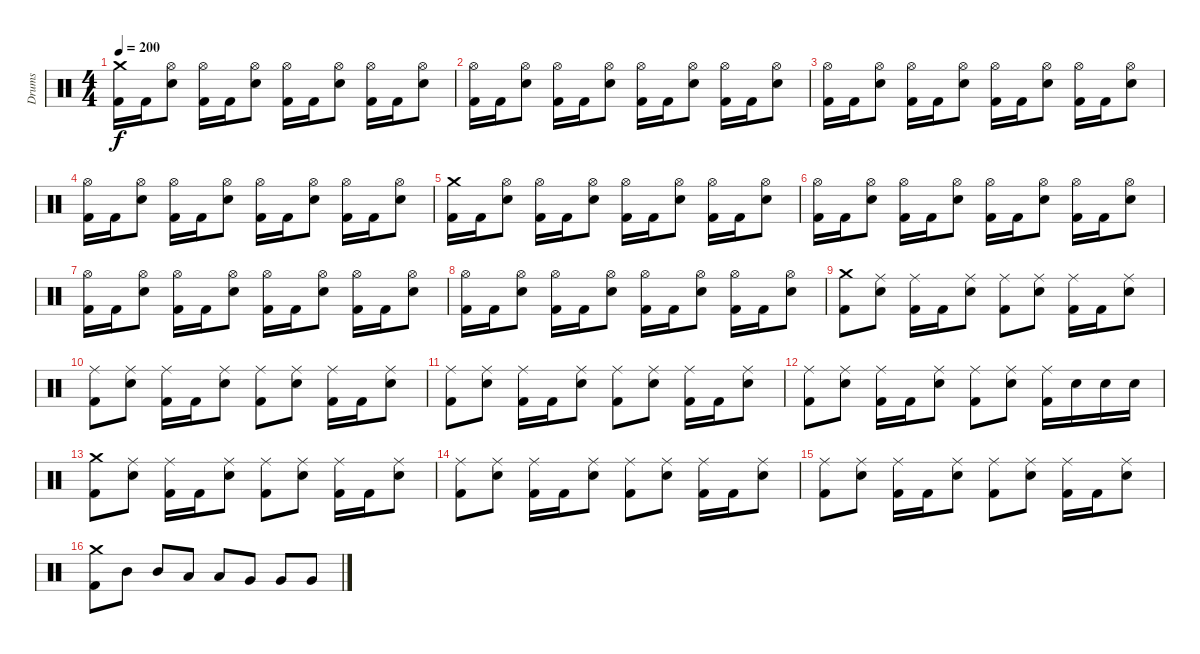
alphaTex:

\track ("Drums" "Drums") {instrument percussion}
\staff {score}
\articulation defaults
\ts (4 4)
\tempo 200
\clef neutral
\ks c
("Crash medium (hit)" "Kick (hit) 2").16{dy f} "Kick (hit) 2".16 ("Hi-Hat (open)" "Electric Snare (hit)").8 ("Hi-Hat (open)" "Kick (hit) 2").16 "Kick (hit) 2".16 ("Hi-Hat (open)" "Electric Snare (hit)").8 ("Hi-Hat (open)" "Kick (hit) 2").16 "Kick (hit) 2".16 ("Hi-Hat (open)" "Electric Snare (hit)").8 ("Hi-Hat (open)" "Kick (hit) 2").16 "Kick (hit) 2".16 ("Hi-Hat (open)" "Electric Snare (hit)").8 |
("Hi-Hat (open)" "Kick (hit) 2").16 "Kick (hit) 2".16 ("Hi-Hat (open)" "Electric Snare (hit)").8 ("Hi-Hat (open)" "Kick (hit) 2").16 "Kick (hit) 2".16 ("Hi-Hat (open)" "Electric Snare (hit)").8 ("Hi-Hat (open)" "Kick (hit) 2").16 "Kick (hit) 2".16 ("Hi-Hat (open)" "Electric Snare (hit)").8 ("Hi-Hat (open)" "Kick (hit) 2").16 "Kick (hit) 2".16 ("Hi-Hat (open)" "Electric Snare (hit)").8 |
("Hi-Hat (open)" "Kick (hit) 2").16 "Kick (hit) 2".16 ("Hi-Hat (open)" "Electric Snare (hit)").8 ("Hi-Hat (open)" "Kick (hit) 2").16 "Kick (hit) 2".16 ("Hi-Hat (open)" "Electric Snare (hit)").8 ("Hi-Hat (open)" "Kick (hit) 2").16 "Kick (hit) 2".16 ("Hi-Hat (open)" "Electric Snare (hit)").8 ("Hi-Hat (open)" "Kick (hit) 2").16 "Kick (hit) 2".16 ("Hi-Hat (open)" "Electric Snare (hit)").8 |
("Hi-Hat (open)" "Kick (hit) 2").16 "Kick (hit) 2".16 ("Hi-Hat (open)" "Electric Snare (hit)").8 ("Hi-Hat (open)" "Kick (hit) 2").16 "Kick (hit) 2".16 ("Hi-Hat (open)" "Electric Snare (hit)").8 ("Hi-Hat (open)" "Kick (hit) 2").16 "Kick (hit) 2".16 ("Hi-Hat (open)" "Electric Snare (hit)").8 ("Hi-Hat (open)" "Kick (hit) 2").16 "Kick (hit) 2".16 ("Hi-Hat (open)" "Electric Snare (hit)").8 |
("Crash medium (hit)" "Kick (hit) 2").16 "Kick (hit) 2".16 ("Hi-Hat (open)" "Electric Snare (hit)").8 ("Hi-Hat (open)" "Kick (hit) 2").16 "Kick (hit) 2".16 ("Hi-Hat (open)" "Electric Snare (hit)").8 ("Hi-Hat (open)" "Kick (hit) 2").16 "Kick (hit) 2".16 ("Hi-Hat (open)" "Electric Snare (hit)").8 ("Hi-Hat (open)" "Kick (hit) 2").16 "Kick (hit) 2".16 ("Hi-Hat (open)" "Electric Snare (hit)").8 |
("Hi-Hat (open)" "Kick (hit) 2").16 "Kick (hit) 2".16 ("Hi-Hat (open)" "Electric Snare (hit)").8 ("Hi-Hat (open)" "Kick (hit) 2").16 "Kick (hit) 2".16 ("Hi-Hat (open)" "Electric Snare (hit)").8 ("Hi-Hat (open)" "Kick (hit) 2").16 "Kick (hit) 2".16 ("Hi-Hat (open)" "Electric Snare (hit)").8 ("Hi-Hat (open)" "Kick (hit) 2").16 "Kick (hit) 2".16 ("Hi-Hat (open)" "Electric Snare (hit)").8 |
("Hi-Hat (open)" "Kick (hit) 2").16 "Kick (hit) 2".16 ("Hi-Hat (open)" "Electric Snare (hit)").8 ("Hi-Hat (open)" "Kick (hit) 2").16 "Kick (hit) 2".16 ("Hi-Hat (open)" "Electric Snare (hit)").8 ("Hi-Hat (open)" "Kick (hit) 2").16 "Kick (hit) 2".16 ("Hi-Hat (open)" "Electric Snare (hit)").8 ("Hi-Hat (open)" "Kick (hit) 2").16 "Kick (hit) 2".16 ("Hi-Hat (open)" "Electric Snare (hit)").8 |
("Hi-Hat (open)" "Kick (hit) 2").16 "Kick (hit) 2".16 ("Hi-Hat (open)" "Electric Snare (hit)").8 ("Hi-Hat (open)" "Kick (hit) 2").16 "Kick (hit) 2".16 ("Hi-Hat (open)" "Electric Snare (hit)").8 ("Hi-Hat (open)" "Kick (hit) 2").16 "Kick (hit) 2".16 ("Hi-Hat (open)" "Electric Snare (hit)").8 ("Hi-Hat (open)" "Kick (hit) 2").16 "Kick (hit) 2".16 ("Hi-Hat (open)" "Electric Snare (hit)").8 |
("Crash medium (hit)" "Kick (hit) 2").8 ("Ride (middle)" "Electric Snare (hit)").8 ("Ride (middle)" "Kick (hit) 2").16 "Kick (hit) 2".16 ("Ride (middle)" "Electric Snare (hit)").8 ("Ride (middle)" "Kick (hit) 2").8 ("Ride (middle)" "Electric Snare (hit)").8 ("Ride (middle)" "Kick (hit) 2").16 "Kick (hit) 2".16 ("Ride (middle)" "Electric Snare (hit)").8 |
("Ride (middle)" "Kick (hit) 2").8 ("Ride (middle)" "Electric Snare (hit)").8 ("Ride (middle)" "Kick (hit) 2").16 "Kick (hit) 2".16 ("Ride (middle)" "Electric Snare (hit)").8 ("Ride (middle)" "Kick (hit) 2").8 ("Ride (middle)" "Electric Snare (hit)").8 ("Ride (middle)" "Kick (hit) 2").16 "Kick (hit) 2".16 ("Ride (middle)" "Electric Snare (hit)").8 |
("Ride (middle)" "Kick (hit) 2").8 ("Ride (middle)" "Electric Snare (hit)").8 ("Ride (middle)" "Kick (hit) 2").16 "Kick (hit) 2".16 ("Ride (middle)" "Electric Snare (hit)").8 ("Ride (middle)" "Kick (hit) 2").8 ("Ride (middle)" "Electric Snare (hit)").8 ("Ride (middle)" "Kick (hit) 2").16 "Kick (hit) 2".16 ("Ride (middle)" "Electric Snare (hit)").8 |
("Ride (middle)" "Kick (hit) 2").8 ("Ride (middle)" "Electric Snare (hit)").8 ("Ride (middle)" "Kick (hit) 2").16 "Kick (hit) 2".16 ("Ride (middle)" "Electric Snare (hit)").8 ("Ride (middle)" "Kick (hit) 2").8 ("Ride (middle)" "Electric Snare (hit)").8 ("Ride (middle)" "Kick (hit) 2").16 "Electric Snare (hit)".16 "Electric Snare (hit)".16 "Electric Snare (hit)".16 |
("Crash medium (hit)" "Kick (hit) 2").8 ("Ride (middle)" "Electric Snare (hit)").8 ("Ride (middle)" "Kick (hit) 2").16 "Kick (hit) 2".16 ("Ride (middle)" "Electric Snare (hit)").8 ("Ride (middle)" "Kick (hit) 2").8 ("Ride (middle)" "Electric Snare (hit)").8 ("Ride (middle)" "Kick (hit) 2").16 "Kick (hit) 2".16 ("Ride (middle)" "Electric Snare (hit)").8 |
("Ride (middle)" "Kick (hit) 2").8 ("Ride (middle)" "Electric Snare (hit)").8 ("Ride (middle)" "Kick (hit) 2").16 "Kick (hit) 2".16 ("Ride (middle)" "Electric Snare (hit)").8 ("Ride (middle)" "Kick (hit) 2").8 ("Ride (middle)" "Electric Snare (hit)").8 ("Ride (middle)" "Kick (hit) 2").16 "Kick (hit) 2".16 ("Ride (middle)" "Electric Snare (hit)").8 |
("Ride (middle)" "Kick (hit) 2").8 ("Ride (middle)" "Electric Snare (hit)").8 ("Ride (middle)" "Kick (hit) 2").16 "Kick (hit) 2".16 ("Ride (middle)" "Electric Snare (hit)").8 ("Ride (middle)" "Kick (hit) 2").8 ("Ride (middle)" "Electric Snare (hit)").8 ("Ride (middle)" "Kick (hit) 2").16 "Kick (hit) 2".16 ("Ride (middle)" "Electric Snare (hit)").8 |
("Crash medium (hit)" "Kick (hit) 2").8 "Mid Tom (hit)".8 "Mid Tom (hit)".8 "Low Tom (hit)".8 "Low Tom (hit)".8 "Very Low Tom (hit)".8 "Very Low Tom (hit)".8 "Very Low Tom (hit)".8
